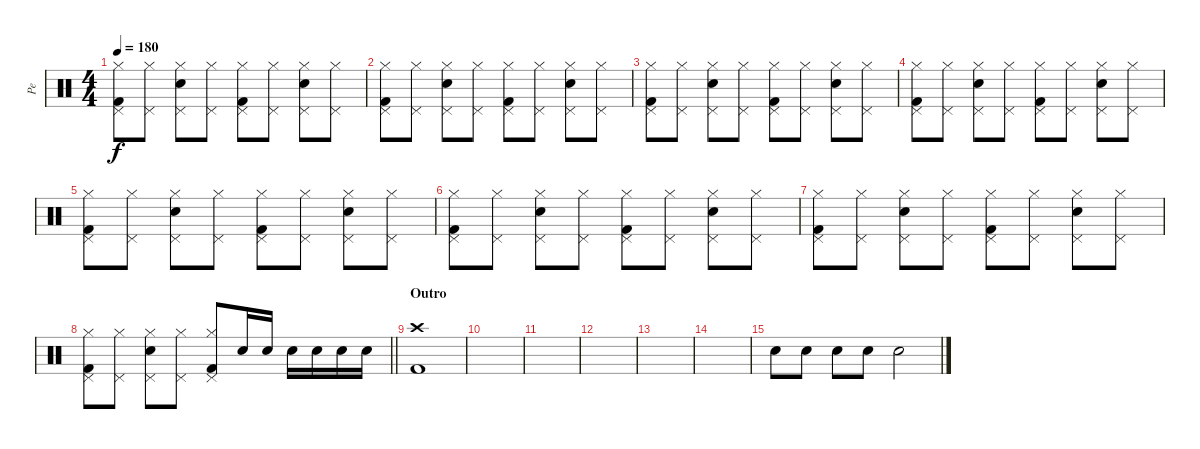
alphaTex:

\track ("Pe" "Pe") {instrument percussion}
\staff {score}
\articulation defaults
\ts (4 4)
\tempo 180
\clef neutral
\ks c
("Kick (hit) 2" "Hi-Hat (closed)" "Pedal Hi-Hat (hit)").8{dy f} ("Hi-Hat (closed)" "Pedal Hi-Hat (hit)").8 ("Electric Snare (hit)" "Hi-Hat (closed)" "Pedal Hi-Hat (hit)").8 ("Hi-Hat (closed)" "Pedal Hi-Hat (hit)").8 ("Kick (hit) 2" "Hi-Hat (closed)" "Pedal Hi-Hat (hit)").8 ("Hi-Hat (closed)" "Pedal Hi-Hat (hit)").8 ("Electric Snare (hit)" "Hi-Hat (closed)" "Pedal Hi-Hat (hit)").8 ("Hi-Hat (closed)" "Pedal Hi-Hat (hit)").8 |
("Kick (hit) 2" "Hi-Hat (closed)" "Pedal Hi-Hat (hit)").8 ("Hi-Hat (closed)" "Pedal Hi-Hat (hit)").8 ("Electric Snare (hit)" "Hi-Hat (closed)" "Pedal Hi-Hat (hit)").8 ("Hi-Hat (closed)" "Pedal Hi-Hat (hit)").8 ("Kick (hit) 2" "Hi-Hat (closed)" "Pedal Hi-Hat (hit)").8 ("Hi-Hat (closed)" "Pedal Hi-Hat (hit)").8 ("Electric Snare (hit)" "Hi-Hat (closed)" "Pedal Hi-Hat (hit)").8 ("Hi-Hat (closed)" "Pedal Hi-Hat (hit)").8 |
("Kick (hit) 2" "Hi-Hat (closed)" "Pedal Hi-Hat (hit)").8 ("Hi-Hat (closed)" "Pedal Hi-Hat (hit)").8 ("Electric Snare (hit)" "Hi-Hat (closed)" "Pedal Hi-Hat (hit)").8 ("Hi-Hat (closed)" "Pedal Hi-Hat (hit)").8 ("Kick (hit) 2" "Hi-Hat (closed)" "Pedal Hi-Hat (hit)").8 ("Hi-Hat (closed)" "Pedal Hi-Hat (hit)").8 ("Electric Snare (hit)" "Hi-Hat (closed)" "Pedal Hi-Hat (hit)").8 ("Hi-Hat (closed)" "Pedal Hi-Hat (hit)").8 |
("Kick (hit) 2" "Hi-Hat (closed)" "Pedal Hi-Hat (hit)").8 ("Hi-Hat (closed)" "Pedal Hi-Hat (hit)").8 ("Electric Snare (hit)" "Hi-Hat (closed)" "Pedal Hi-Hat (hit)").8 ("Hi-Hat (closed)" "Pedal Hi-Hat (hit)").8 ("Kick (hit) 2" "Hi-Hat (closed)" "Pedal Hi-Hat (hit)").8 ("Hi-Hat (closed)" "Pedal Hi-Hat (hit)").8 ("Electric Snare (hit)" "Hi-Hat (closed)" "Pedal Hi-Hat (hit)").8 ("Hi-Hat (closed)" "Pedal Hi-Hat (hit)").8 |
("Kick (hit) 2" "Hi-Hat (closed)" "Pedal Hi-Hat (hit)").8 ("Hi-Hat (closed)" "Pedal Hi-Hat (hit)").8 ("Electric Snare (hit)" "Hi-Hat (closed)" "Pedal Hi-Hat (hit)").8 ("Hi-Hat (closed)" "Pedal Hi-Hat (hit)").8 ("Kick (hit) 2" "Hi-Hat (closed)" "Pedal Hi-Hat (hit)").8 ("Hi-Hat (closed)" "Pedal Hi-Hat (hit)").8 ("Electric Snare (hit)" "Hi-Hat (closed)" "Pedal Hi-Hat (hit)").8 ("Hi-Hat (closed)" "Pedal Hi-Hat (hit)").8 |
("Kick (hit) 2" "Hi-Hat (closed)" "Pedal Hi-Hat (hit)").8 ("Hi-Hat (closed)" "Pedal Hi-Hat (hit)").8 ("Electric Snare (hit)" "Hi-Hat (closed)" "Pedal Hi-Hat (hit)").8 ("Hi-Hat (closed)" "Pedal Hi-Hat (hit)").8 ("Kick (hit) 2" "Hi-Hat (closed)" "Pedal Hi-Hat (hit)").8 ("Hi-Hat (closed)" "Pedal Hi-Hat (hit)").8 ("Electric Snare (hit)" "Hi-Hat (closed)" "Pedal Hi-Hat (hit)").8 ("Hi-Hat (closed)" "Pedal Hi-Hat (hit)").8 |
("Kick (hit) 2" "Hi-Hat (closed)" "Pedal Hi-Hat (hit)").8 ("Hi-Hat (closed)" "Pedal Hi-Hat (hit)").8 ("Electric Snare (hit)" "Hi-Hat (closed)" "Pedal Hi-Hat (hit)").8 ("Hi-Hat (closed)" "Pedal Hi-Hat (hit)").8 ("Kick (hit) 2" "Hi-Hat (closed)" "Pedal Hi-Hat (hit)").8 ("Hi-Hat (closed)" "Pedal Hi-Hat (hit)").8 ("Electric Snare (hit)" "Hi-Hat (closed)" "Pedal Hi-Hat (hit)").8 ("Hi-Hat (closed)" "Pedal Hi-Hat (hit)").8 |
\barLineRight lightlight
("Kick (hit) 2" "Hi-Hat (closed)" "Pedal Hi-Hat (hit)").8 ("Hi-Hat (closed)" "Pedal Hi-Hat (hit)").8 ("Electric Snare (hit)" "Hi-Hat (closed)" "Pedal Hi-Hat (hit)").8 ("Hi-Hat (closed)" "Pedal Hi-Hat (hit)").8 ("Kick (hit) 2" "Hi-Hat (closed)" "Pedal Hi-Hat (hit)").8 "Electric Snare (hit)".16 "Electric Snare (hit)".16 "Electric Snare (hit)".16 "Electric Snare (hit)".16 "Electric Snare (hit)".16 "Electric Snare (hit)".16 |
\section ("" "Outro")
("Kick (hit) 2" "Crash high (hit)").1 |
|
|
|
|
|
"Electric Snare (hit)".8 "Electric Snare (hit)".8 "Electric Snare (hit)".8 "Electric Snare (hit)".8 "Electric Snare (hit)".2
